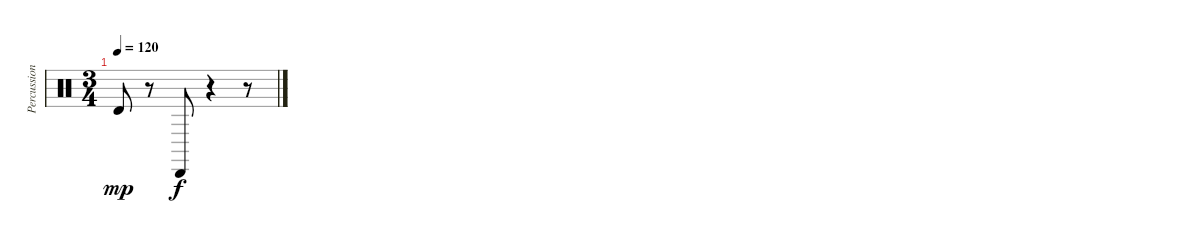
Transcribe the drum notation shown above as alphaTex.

\track ("Percussions" "Percussion") {instrument percussion}
\staff {score}
\articulation defaults
\ts (3 4)
\tempo 120
\clef neutral
\ks c "Timbale high (hit)".8{dy mp}
r.8 "Cabasa (hit)".8{dy f} r.4 r.8
